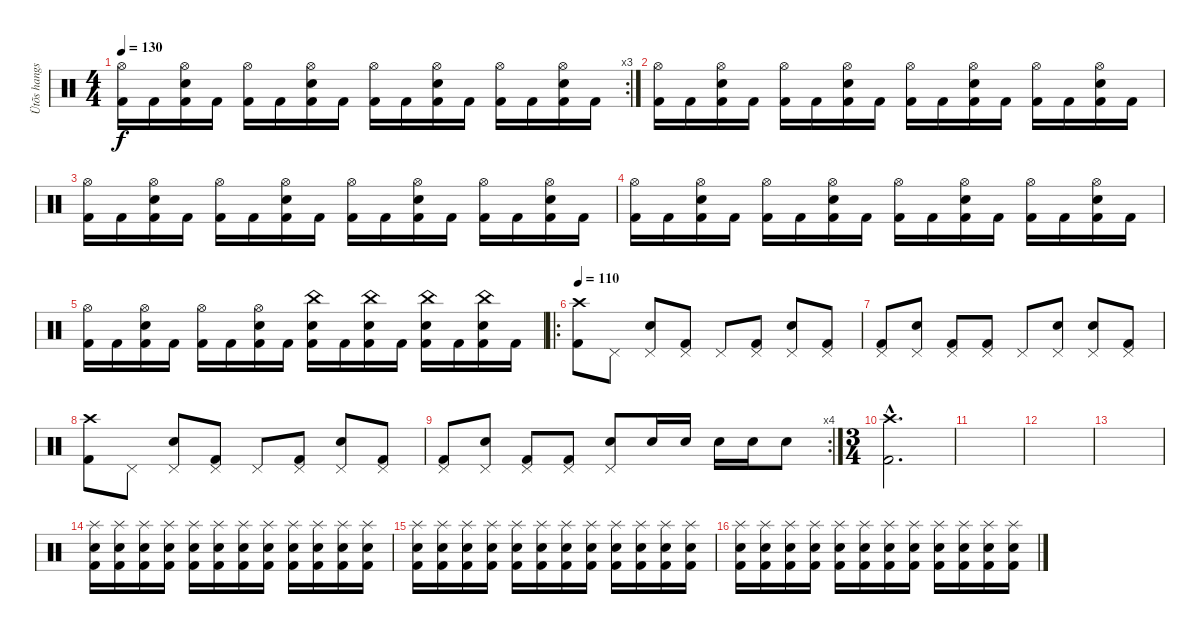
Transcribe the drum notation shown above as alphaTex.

\track ("Ütõs hangszer" "Ütõs hangs") {instrument percussion}
\staff {score}
\articulation defaults
\rc 3
\ts (4 4)
\tempo 130
\clef neutral
\ks c
("Hi-Hat (open)" "Kick (hit) 2").16{dy f} "Kick (hit) 2".16 ("Hi-Hat (open)" "Electric Snare (hit)" "Kick (hit) 2").16 "Kick (hit) 2".16 ("Hi-Hat (open)" "Kick (hit) 2").16 "Kick (hit) 2".16 ("Hi-Hat (open)" "Electric Snare (hit)" "Kick (hit) 2").16 "Kick (hit) 2".16 ("Hi-Hat (open)" "Kick (hit) 2").16 "Kick (hit) 2".16 ("Hi-Hat (open)" "Electric Snare (hit)" "Kick (hit) 2").16 "Kick (hit) 2".16 ("Hi-Hat (open)" "Kick (hit) 2").16 "Kick (hit) 2".16 ("Hi-Hat (open)" "Electric Snare (hit)" "Kick (hit) 2").16 "Kick (hit) 2".16 |
("Hi-Hat (open)" "Kick (hit) 2").16 "Kick (hit) 2".16 ("Hi-Hat (open)" "Electric Snare (hit)" "Kick (hit) 2").16 "Kick (hit) 2".16 ("Hi-Hat (open)" "Kick (hit) 2").16 "Kick (hit) 2".16 ("Hi-Hat (open)" "Electric Snare (hit)" "Kick (hit) 2").16 "Kick (hit) 2".16 ("Hi-Hat (open)" "Kick (hit) 2").16 "Kick (hit) 2".16 ("Hi-Hat (open)" "Electric Snare (hit)" "Kick (hit) 2").16 "Kick (hit) 2".16 ("Hi-Hat (open)" "Kick (hit) 2").16 "Kick (hit) 2".16 ("Hi-Hat (open)" "Electric Snare (hit)" "Kick (hit) 2").16 "Kick (hit) 2".16 |
("Hi-Hat (open)" "Kick (hit) 2").16 "Kick (hit) 2".16 ("Hi-Hat (open)" "Electric Snare (hit)" "Kick (hit) 2").16 "Kick (hit) 2".16 ("Hi-Hat (open)" "Kick (hit) 2").16 "Kick (hit) 2".16 ("Hi-Hat (open)" "Electric Snare (hit)" "Kick (hit) 2").16 "Kick (hit) 2".16 ("Hi-Hat (open)" "Kick (hit) 2").16 "Kick (hit) 2".16 ("Hi-Hat (open)" "Electric Snare (hit)" "Kick (hit) 2").16 "Kick (hit) 2".16 ("Hi-Hat (open)" "Kick (hit) 2").16 "Kick (hit) 2".16 ("Hi-Hat (open)" "Electric Snare (hit)" "Kick (hit) 2").16 "Kick (hit) 2".16 |
("Hi-Hat (open)" "Kick (hit) 2").16 "Kick (hit) 2".16 ("Hi-Hat (open)" "Electric Snare (hit)" "Kick (hit) 2").16 "Kick (hit) 2".16 ("Hi-Hat (open)" "Kick (hit) 2").16 "Kick (hit) 2".16 ("Hi-Hat (open)" "Electric Snare (hit)" "Kick (hit) 2").16 "Kick (hit) 2".16 ("Hi-Hat (open)" "Kick (hit) 2").16 "Kick (hit) 2".16 ("Hi-Hat (open)" "Electric Snare (hit)" "Kick (hit) 2").16 "Kick (hit) 2".16 ("Hi-Hat (open)" "Kick (hit) 2").16 "Kick (hit) 2".16 ("Hi-Hat (open)" "Electric Snare (hit)" "Kick (hit) 2").16 "Kick (hit) 2".16 |
("Hi-Hat (open)" "Kick (hit) 2").16 "Kick (hit) 2".16 ("Hi-Hat (open)" "Electric Snare (hit)" "Kick (hit) 2").16 "Kick (hit) 2".16 ("Hi-Hat (open)" "Kick (hit) 2").16 "Kick (hit) 2".16 ("Hi-Hat (open)" "Electric Snare (hit)" "Kick (hit) 2").16 "Kick (hit) 2".16 ("China (hit)" "Electric Snare (hit)" "Kick (hit) 2").16 "Kick (hit) 2".16 ("China (hit)" "Electric Snare (hit)" "Kick (hit) 2").16 "Kick (hit) 2".16 ("China (hit)" "Electric Snare (hit)" "Kick (hit) 2").16 "Kick (hit) 2".16 ("China (hit)" "Electric Snare (hit)" "Kick (hit) 2").16 "Kick (hit) 2".16 |
\ro
\tempo 110
("Crash high (hit)" "Kick (hit) 2").8 "Pedal Hi-Hat (hit)".8 ("Pedal Hi-Hat (hit)" "Electric Snare (hit)").8 ("Pedal Hi-Hat (hit)" "Kick (hit) 2").8 "Pedal Hi-Hat (hit)".8 ("Pedal Hi-Hat (hit)" "Kick (hit) 2").8 ("Pedal Hi-Hat (hit)" "Electric Snare (hit)").8 ("Pedal Hi-Hat (hit)" "Kick (hit) 2").8 |
("Pedal Hi-Hat (hit)" "Kick (hit) 2").8 ("Pedal Hi-Hat (hit)" "Electric Snare (hit)").8 ("Pedal Hi-Hat (hit)" "Kick (hit) 2").8 ("Pedal Hi-Hat (hit)" "Kick (hit) 2").8 "Pedal Hi-Hat (hit)".8 ("Pedal Hi-Hat (hit)" "Electric Snare (hit)").8 ("Pedal Hi-Hat (hit)" "Electric Snare (hit)").8 ("Pedal Hi-Hat (hit)" "Kick (hit) 2").8 |
("Crash high (hit)" "Kick (hit) 2").8 "Pedal Hi-Hat (hit)".8 ("Pedal Hi-Hat (hit)" "Electric Snare (hit)").8 ("Pedal Hi-Hat (hit)" "Kick (hit) 2").8 "Pedal Hi-Hat (hit)".8 ("Pedal Hi-Hat (hit)" "Kick (hit) 2").8 ("Pedal Hi-Hat (hit)" "Electric Snare (hit)").8 ("Pedal Hi-Hat (hit)" "Kick (hit) 2").8 |
\rc 4
("Pedal Hi-Hat (hit)" "Kick (hit) 2").8 ("Pedal Hi-Hat (hit)" "Electric Snare (hit)").8 ("Pedal Hi-Hat (hit)" "Kick (hit) 2").8 ("Pedal Hi-Hat (hit)" "Kick (hit) 2").8 ("Pedal Hi-Hat (hit)" "Electric Snare (hit)").8 "Electric Snare (hit)".16 "Electric Snare (hit)".16 "Electric Snare (hit)".16 "Electric Snare (hit)".16 "Electric Snare (hit)".8 |
\ts (3 4)
("Crash high (hit)"{hac} "Kick (hit) 2"{hac}).2{d} |
|
|
|
("Splash (hit)" "Electric Snare (hit)" "Kick (hit) 2").16 ("Splash (hit)" "Electric Snare (hit)" "Kick (hit) 2").16 ("Splash (hit)" "Electric Snare (hit)" "Kick (hit) 2").16 ("Splash (hit)" "Electric Snare (hit)" "Kick (hit) 2").16 ("Splash (hit)" "Electric Snare (hit)" "Kick (hit) 2").16 ("Splash (hit)" "Electric Snare (hit)" "Kick (hit) 2").16 ("Splash (hit)" "Electric Snare (hit)" "Kick (hit) 2").16 ("Splash (hit)" "Electric Snare (hit)" "Kick (hit) 2").16 ("Splash (hit)" "Electric Snare (hit)" "Kick (hit) 2").16 ("Splash (hit)" "Electric Snare (hit)" "Kick (hit) 2").16 ("Splash (hit)" "Electric Snare (hit)" "Kick (hit) 2").16 ("Splash (hit)" "Electric Snare (hit)" "Kick (hit) 2").16 |
("Splash (hit)" "Electric Snare (hit)" "Kick (hit) 2").16 ("Splash (hit)" "Electric Snare (hit)" "Kick (hit) 2").16 ("Splash (hit)" "Electric Snare (hit)" "Kick (hit) 2").16 ("Splash (hit)" "Electric Snare (hit)" "Kick (hit) 2").16 ("Splash (hit)" "Electric Snare (hit)" "Kick (hit) 2").16 ("Splash (hit)" "Electric Snare (hit)" "Kick (hit) 2").16 ("Splash (hit)" "Electric Snare (hit)" "Kick (hit) 2").16 ("Splash (hit)" "Electric Snare (hit)" "Kick (hit) 2").16 ("Splash (hit)" "Electric Snare (hit)" "Kick (hit) 2").16 ("Splash (hit)" "Electric Snare (hit)" "Kick (hit) 2").16 ("Splash (hit)" "Electric Snare (hit)" "Kick (hit) 2").16 ("Splash (hit)" "Electric Snare (hit)" "Kick (hit) 2").16 |
("Splash (hit)" "Electric Snare (hit)" "Kick (hit) 2").16 ("Splash (hit)" "Electric Snare (hit)" "Kick (hit) 2").16 ("Splash (hit)" "Electric Snare (hit)" "Kick (hit) 2").16 ("Splash (hit)" "Electric Snare (hit)" "Kick (hit) 2").16 ("Splash (hit)" "Electric Snare (hit)" "Kick (hit) 2").16 ("Splash (hit)" "Electric Snare (hit)" "Kick (hit) 2").16 ("Splash (hit)" "Electric Snare (hit)" "Kick (hit) 2").16 ("Splash (hit)" "Electric Snare (hit)" "Kick (hit) 2").16 ("Splash (hit)" "Electric Snare (hit)" "Kick (hit) 2").16 ("Splash (hit)" "Electric Snare (hit)" "Kick (hit) 2").16 ("Splash (hit)" "Electric Snare (hit)" "Kick (hit) 2").16 ("Splash (hit)" "Electric Snare (hit)" "Kick (hit) 2").16
